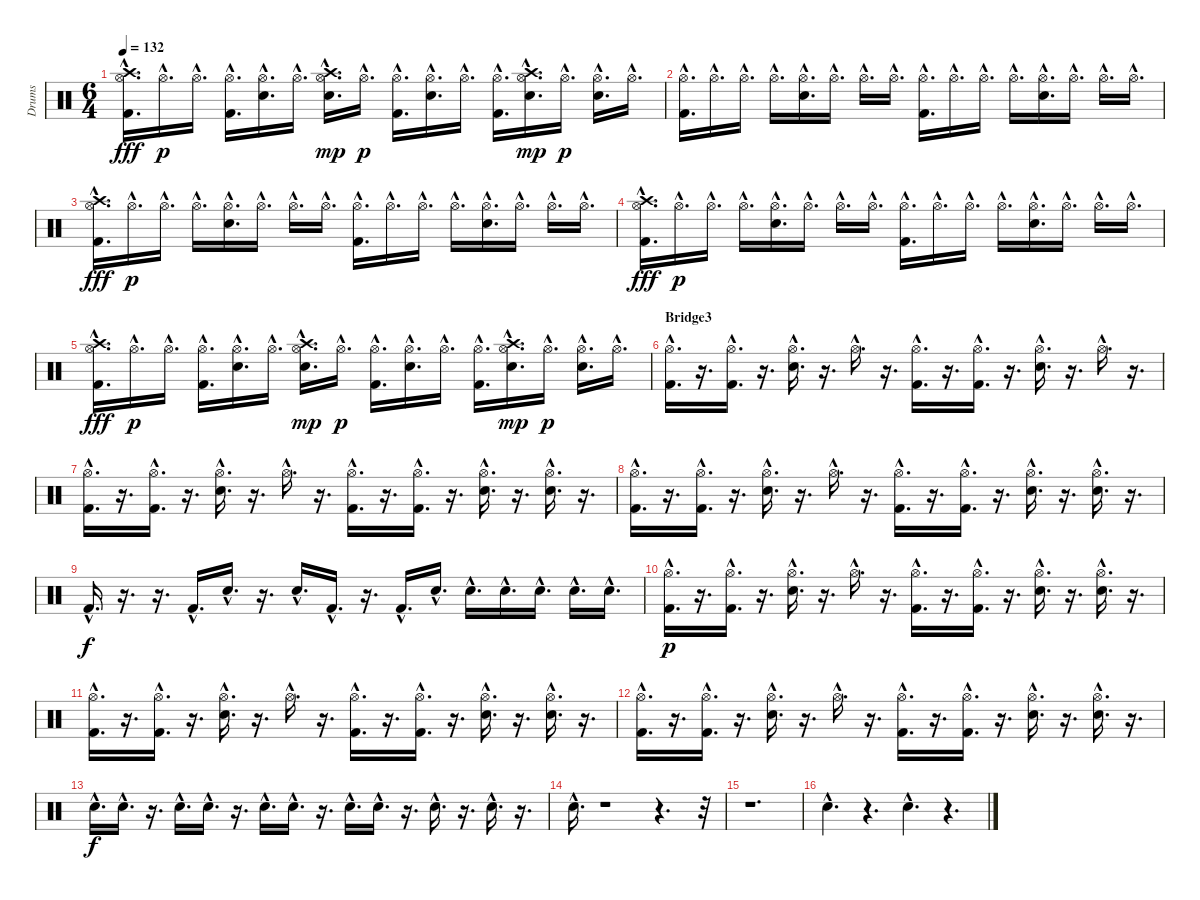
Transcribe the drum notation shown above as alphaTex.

\track ("Drums" "Drums") {instrument percussion}
\staff {score}
\articulation defaults
\ts (6 4)
\tempo 132
\clef neutral
\ks c
("Crash high (hit)"{hac} "Hi-Hat (open)"{hac} "Kick (hit) 2"{hac}).16{d dy fff} "Hi-Hat (open)"{hac}.16{d dy p} "Hi-Hat (open)"{hac}.16{d} ("Kick (hit) 2"{hac} "Hi-Hat (open)"{hac}).16{d} ("Electric Snare (hit)"{hac} "Hi-Hat (open)"{hac}).16{d} "Hi-Hat (open)"{hac}.16{d} ("Electric Snare (hit)"{hac} "Hi-Hat (open)"{hac} "Crash high (hit)"{hac}).16{d dy mp} "Hi-Hat (open)"{hac}.16{d dy p} ("Kick (hit) 2"{hac} "Hi-Hat (open)"{hac}).16{d} ("Electric Snare (hit)"{hac} "Hi-Hat (open)"{hac}).16{d} "Hi-Hat (open)"{hac}.16{d} ("Kick (hit) 2"{hac} "Hi-Hat (open)"{hac}).16{d} ("Electric Snare (hit)"{hac} "Hi-Hat (open)"{hac} "Crash high (hit)"{hac}).16{d dy mp} "Hi-Hat (open)"{hac}.16{d dy p} ("Electric Snare (hit)"{hac} "Hi-Hat (open)"{hac}).16{d} "Hi-Hat (open)"{hac}.16{d} |
("Kick (hit) 2"{hac} "Hi-Hat (open)"{hac}).16{d} "Hi-Hat (open)"{hac}.16{d} "Hi-Hat (open)"{hac}.16{d} "Hi-Hat (open)"{hac}.16{d} ("Electric Snare (hit)"{hac} "Hi-Hat (open)"{hac}).16{d} "Hi-Hat (open)"{hac}.16{d} "Hi-Hat (open)"{hac}.16{d} "Hi-Hat (open)"{hac}.16{d} ("Kick (hit) 2"{hac} "Hi-Hat (open)"{hac}).16{d} "Hi-Hat (open)"{hac}.16{d} "Hi-Hat (open)"{hac}.16{d} "Hi-Hat (open)"{hac}.16{d} ("Electric Snare (hit)"{hac} "Hi-Hat (open)"{hac}).16{d} "Hi-Hat (open)"{hac}.16{d} "Hi-Hat (open)"{hac}.16{d} "Hi-Hat (open)"{hac}.16{d} |
("Crash high (hit)"{hac} "Hi-Hat (open)"{hac} "Kick (hit) 2"{hac}).16{d dy fff} "Hi-Hat (open)"{hac}.16{d dy p} "Hi-Hat (open)"{hac}.16{d} "Hi-Hat (open)"{hac}.16{d} ("Electric Snare (hit)"{hac} "Hi-Hat (open)"{hac}).16{d} "Hi-Hat (open)"{hac}.16{d} "Hi-Hat (open)"{hac}.16{d} "Hi-Hat (open)"{hac}.16{d} ("Kick (hit) 2"{hac} "Hi-Hat (open)"{hac}).16{d} "Hi-Hat (open)"{hac}.16{d} "Hi-Hat (open)"{hac}.16{d} "Hi-Hat (open)"{hac}.16{d} ("Electric Snare (hit)"{hac} "Hi-Hat (open)"{hac}).16{d} "Hi-Hat (open)"{hac}.16{d} "Hi-Hat (open)"{hac}.16{d} "Hi-Hat (open)"{hac}.16{d} |
("Crash high (hit)"{hac} "Hi-Hat (open)"{hac} "Kick (hit) 2"{hac}).16{d dy fff} "Hi-Hat (open)"{hac}.16{d dy p} "Hi-Hat (open)"{hac}.16{d} "Hi-Hat (open)"{hac}.16{d} ("Electric Snare (hit)"{hac} "Hi-Hat (open)"{hac}).16{d} "Hi-Hat (open)"{hac}.16{d} "Hi-Hat (open)"{hac}.16{d} "Hi-Hat (open)"{hac}.16{d} ("Kick (hit) 2"{hac} "Hi-Hat (open)"{hac}).16{d} "Hi-Hat (open)"{hac}.16{d} "Hi-Hat (open)"{hac}.16{d} "Hi-Hat (open)"{hac}.16{d} ("Electric Snare (hit)"{hac} "Hi-Hat (open)"{hac}).16{d} "Hi-Hat (open)"{hac}.16{d} "Hi-Hat (open)"{hac}.16{d} "Hi-Hat (open)"{hac}.16{d} |
("Crash high (hit)"{hac} "Hi-Hat (open)"{hac} "Kick (hit) 2"{hac}).16{d dy fff} "Hi-Hat (open)"{hac}.16{d dy p} "Hi-Hat (open)"{hac}.16{d} ("Kick (hit) 2"{hac} "Hi-Hat (open)"{hac}).16{d} ("Electric Snare (hit)"{hac} "Hi-Hat (open)"{hac}).16{d} "Hi-Hat (open)"{hac}.16{d} ("Electric Snare (hit)"{hac} "Hi-Hat (open)"{hac} "Crash high (hit)"{hac}).16{d dy mp} "Hi-Hat (open)"{hac}.16{d dy p} ("Kick (hit) 2"{hac} "Hi-Hat (open)"{hac}).16{d} ("Electric Snare (hit)"{hac} "Hi-Hat (open)"{hac}).16{d} "Hi-Hat (open)"{hac}.16{d} ("Kick (hit) 2"{hac} "Hi-Hat (open)"{hac}).16{d} ("Electric Snare (hit)"{hac} "Hi-Hat (open)"{hac} "Crash high (hit)"{hac}).16{d dy mp} "Hi-Hat (open)"{hac}.16{d dy p} ("Electric Snare (hit)"{hac} "Hi-Hat (open)"{hac}).16{d} "Hi-Hat (open)"{hac}.16{d} |
\section ("" "Bridge3")
("Hi-Hat (open)"{hac} "Kick (hit) 2"{hac}).16{d} r.16{d} ("Hi-Hat (open)"{hac} "Kick (hit) 2"{hac}).16{d} r.16{d} ("Hi-Hat (open)"{hac} "Electric Snare (hit)"{hac}).16{d} r.16{d} "Hi-Hat (open)"{hac}.16{d} r.16{d} ("Hi-Hat (open)"{hac} "Kick (hit) 2"{hac}).16{d} r.16{d} ("Hi-Hat (open)"{hac} "Kick (hit) 2"{hac}).16{d} r.16{d} ("Hi-Hat (open)"{hac} "Electric Snare (hit)"{hac}).16{d} r.16{d} "Hi-Hat (open)"{hac}.16{d} r.16{d} |
("Hi-Hat (open)"{hac} "Kick (hit) 2"{hac}).16{d} r.16{d} ("Hi-Hat (open)"{hac} "Kick (hit) 2"{hac}).16{d} r.16{d} ("Hi-Hat (open)"{hac} "Electric Snare (hit)"{hac}).16{d} r.16{d} "Hi-Hat (open)"{hac}.16{d} r.16{d} ("Hi-Hat (open)"{hac} "Kick (hit) 2"{hac}).16{d} r.16{d} ("Hi-Hat (open)"{hac} "Kick (hit) 2"{hac}).16{d} r.16{d} ("Hi-Hat (open)"{hac} "Electric Snare (hit)"{hac}).16{d} r.16{d} ("Hi-Hat (open)"{hac} "Electric Snare (hit)"{hac}).16{d} r.16{d} |
("Hi-Hat (open)"{hac} "Kick (hit) 2"{hac}).16{d} r.16{d} ("Hi-Hat (open)"{hac} "Kick (hit) 2"{hac}).16{d} r.16{d} ("Hi-Hat (open)"{hac} "Electric Snare (hit)"{hac}).16{d} r.16{d} "Hi-Hat (open)"{hac}.16{d} r.16{d} ("Hi-Hat (open)"{hac} "Kick (hit) 2"{hac}).16{d} r.16{d} ("Hi-Hat (open)"{hac} "Kick (hit) 2"{hac}).16{d} r.16{d} ("Hi-Hat (open)"{hac} "Electric Snare (hit)"{hac}).16{d} r.16{d} ("Hi-Hat (open)"{hac} "Electric Snare (hit)"{hac}).16{d} r.16{d} |
"Kick (hit) 2"{hac}.16{d dy f} r.16{d} r.16{d} "Kick (hit) 2"{hac}.16{d} "Electric Snare (hit)"{hac}.16{d} r.16{d} "Electric Snare (hit)"{hac}.16{d} "Kick (hit) 2"{hac}.16{d} r.16{d} "Kick (hit) 2"{hac}.16{d} "Electric Snare (hit)"{hac}.16{d} "Electric Snare (hit)"{hac}.16{d} "Electric Snare (hit)"{hac}.16{d} "Electric Snare (hit)"{hac}.16{d} "Electric Snare (hit)"{hac}.16{d} "Electric Snare (hit)"{hac}.16{d} |
("Hi-Hat (open)"{hac} "Kick (hit) 2"{hac}).16{d dy p} r.16{d} ("Hi-Hat (open)"{hac} "Kick (hit) 2"{hac}).16{d} r.16{d} ("Hi-Hat (open)"{hac} "Electric Snare (hit)"{hac}).16{d} r.16{d} "Hi-Hat (open)"{hac}.16{d} r.16{d} ("Hi-Hat (open)"{hac} "Kick (hit) 2"{hac}).16{d} r.16{d} ("Hi-Hat (open)"{hac} "Kick (hit) 2"{hac}).16{d} r.16{d} ("Hi-Hat (open)"{hac} "Electric Snare (hit)"{hac}).16{d} r.16{d} ("Hi-Hat (open)"{hac} "Electric Snare (hit)"{hac}).16{d} r.16{d} |
("Hi-Hat (open)"{hac} "Kick (hit) 2"{hac}).16{d} r.16{d} ("Hi-Hat (open)"{hac} "Kick (hit) 2"{hac}).16{d} r.16{d} ("Hi-Hat (open)"{hac} "Electric Snare (hit)"{hac}).16{d} r.16{d} "Hi-Hat (open)"{hac}.16{d} r.16{d} ("Hi-Hat (open)"{hac} "Kick (hit) 2"{hac}).16{d} r.16{d} ("Hi-Hat (open)"{hac} "Kick (hit) 2"{hac}).16{d} r.16{d} ("Hi-Hat (open)"{hac} "Electric Snare (hit)"{hac}).16{d} r.16{d} ("Hi-Hat (open)"{hac} "Electric Snare (hit)"{hac}).16{d} r.16{d} |
("Hi-Hat (open)"{hac} "Kick (hit) 2"{hac}).16{d} r.16{d} ("Hi-Hat (open)"{hac} "Kick (hit) 2"{hac}).16{d} r.16{d} ("Hi-Hat (open)"{hac} "Electric Snare (hit)"{hac}).16{d} r.16{d} "Hi-Hat (open)"{hac}.16{d} r.16{d} ("Hi-Hat (open)"{hac} "Kick (hit) 2"{hac}).16{d} r.16{d} ("Hi-Hat (open)"{hac} "Kick (hit) 2"{hac}).16{d} r.16{d} ("Hi-Hat (open)"{hac} "Electric Snare (hit)"{hac}).16{d} r.16{d} ("Hi-Hat (open)"{hac} "Electric Snare (hit)"{hac}).16{d} r.16{d} |
"Electric Snare (hit)"{hac}.16{d dy f} "Electric Snare (hit)"{hac}.16{d} r.16{d} "Electric Snare (hit)"{hac}.16{d} "Electric Snare (hit)"{hac}.16{d} r.16{d} "Electric Snare (hit)"{hac}.16{d} "Electric Snare (hit)"{hac}.16{d} r.16{d} "Electric Snare (hit)"{hac}.16{d} "Electric Snare (hit)"{hac}.16{d} r.16{d} "Electric Snare (hit)"{hac}.16{d} r.16{d} "Electric Snare (hit)"{hac}.16{d} r.16{d} |
"Electric Snare (hit)"{hac}.16{d} r.1 r.4{d} r.32 |
r.1{d} |
"Electric Snare (hit)"{hac}.4{d} r.4{d} "Electric Snare (hit)"{hac}.4{d} r.4{d}
